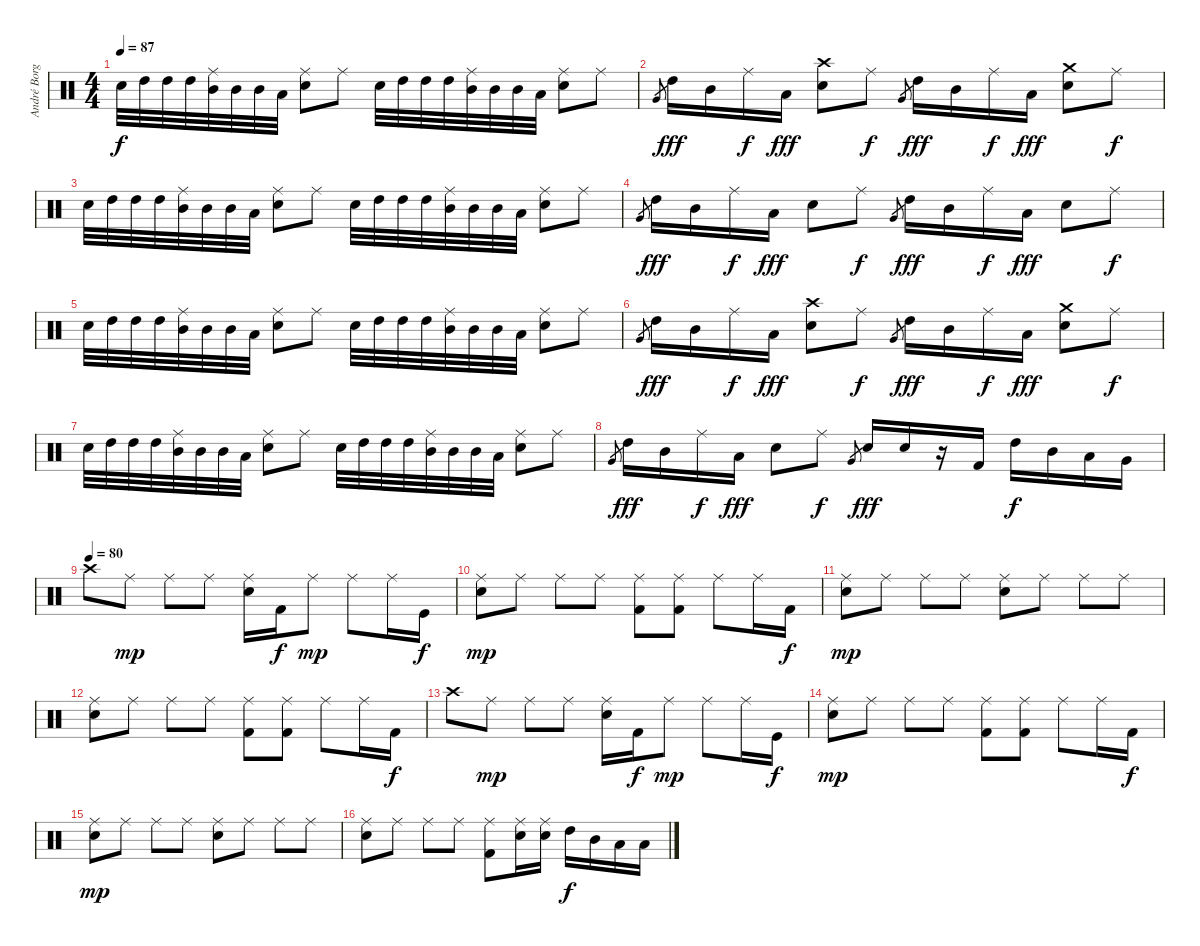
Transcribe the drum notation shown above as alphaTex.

\track ("André Borgman" "André Borg") {instrument percussion}
\staff {score}
\articulation defaults
\ts (4 4)
\tempo 87
\clef neutral
\ks c "Electric Snare (hit)".32{dy f} "High Tom (hit)".32 "High Tom (hit)".32 "High Tom (hit)".32
("Ride (middle)" "Mid Tom (hit)").32 "Mid Tom (hit)".32 "Mid Tom (hit)".32 "Low Tom (hit)".32 ("Ride (middle)" "Electric Snare (hit)").8 "Ride (middle)".8 "Electric Snare (hit)".32 "High Tom (hit)".32 "High Tom (hit)".32 "High Tom (hit)".32 ("Ride (middle)" "Mid Tom (hit)").32 "Mid Tom (hit)".32 "Mid Tom (hit)".32 "Low Tom (hit)".32 ("Ride (middle)" "Electric Snare (hit)").8 "Ride (middle)".8 |
"Very Low Tom (hit)".8{gr} "High Tom (hit)".16{dy fff} "Mid Tom (hit)".16 "Ride (middle)".16{dy f} "Low Tom (hit)".16{dy fff} ("Crash high (hit)" "Electric Snare (hit)").8 "Ride (middle)".8{dy f} "Very Low Tom (hit)".8{gr} "High Tom (hit)".16{dy fff} "Mid Tom (hit)".16 "Ride (middle)".16{dy f} "Low Tom (hit)".16{dy fff} ("Crash medium (hit)" "Electric Snare (hit)").8 "Ride (middle)".8{dy f} |
"Electric Snare (hit)".32 "High Tom (hit)".32 "High Tom (hit)".32 "High Tom (hit)".32 ("Ride (middle)" "Mid Tom (hit)").32 "Mid Tom (hit)".32 "Mid Tom (hit)".32 "Low Tom (hit)".32 ("Ride (middle)" "Electric Snare (hit)").8 "Ride (middle)".8 "Electric Snare (hit)".32 "High Tom (hit)".32 "High Tom (hit)".32 "High Tom (hit)".32 ("Ride (middle)" "Mid Tom (hit)").32 "Mid Tom (hit)".32 "Mid Tom (hit)".32 "Low Tom (hit)".32 ("Ride (middle)" "Electric Snare (hit)").8 "Ride (middle)".8 |
"Very Low Tom (hit)".8{gr} "High Tom (hit)".16{dy fff} "Mid Tom (hit)".16 "Ride (middle)".16{dy f} "Low Tom (hit)".16{dy fff} "Electric Snare (hit)".8 "Ride (middle)".8{dy f} "Very Low Tom (hit)".8{gr} "High Tom (hit)".16{dy fff} "Mid Tom (hit)".16 "Ride (middle)".16{dy f} "Low Tom (hit)".16{dy fff} "Electric Snare (hit)".8 "Ride (middle)".8{dy f} |
"Electric Snare (hit)".32 "High Tom (hit)".32 "High Tom (hit)".32 "High Tom (hit)".32 ("Ride (middle)" "Mid Tom (hit)").32 "Mid Tom (hit)".32 "Mid Tom (hit)".32 "Low Tom (hit)".32 ("Ride (middle)" "Electric Snare (hit)").8 "Ride (middle)".8 "Electric Snare (hit)".32 "High Tom (hit)".32 "High Tom (hit)".32 "High Tom (hit)".32 ("Ride (middle)" "Mid Tom (hit)").32 "Mid Tom (hit)".32 "Mid Tom (hit)".32 "Low Tom (hit)".32 ("Ride (middle)" "Electric Snare (hit)").8 "Ride (middle)".8 |
"Very Low Tom (hit)".8{gr} "High Tom (hit)".16{dy fff} "Mid Tom (hit)".16 "Ride (middle)".16{dy f} "Low Tom (hit)".16{dy fff} ("Crash high (hit)" "Electric Snare (hit)").8 "Ride (middle)".8{dy f} "Very Low Tom (hit)".8{gr} "High Tom (hit)".16{dy fff} "Mid Tom (hit)".16 "Ride (middle)".16{dy f} "Low Tom (hit)".16{dy fff} ("Crash medium (hit)" "Electric Snare (hit)").8 "Ride (middle)".8{dy f} |
"Electric Snare (hit)".32 "High Tom (hit)".32 "High Tom (hit)".32 "High Tom (hit)".32 ("Ride (middle)" "Mid Tom (hit)").32 "Mid Tom (hit)".32 "Mid Tom (hit)".32 "Low Tom (hit)".32 ("Ride (middle)" "Electric Snare (hit)").8 "Ride (middle)".8 "Electric Snare (hit)".32 "High Tom (hit)".32 "High Tom (hit)".32 "High Tom (hit)".32 ("Ride (middle)" "Mid Tom (hit)").32 "Mid Tom (hit)".32 "Mid Tom (hit)".32 "Low Tom (hit)".32 ("Ride (middle)" "Electric Snare (hit)").8 "Ride (middle)".8 |
"Very Low Tom (hit)".8{gr} "High Tom (hit)".16{dy fff} "Mid Tom (hit)".16 "Ride (middle)".16{dy f} "Low Tom (hit)".16{dy fff} "Electric Snare (hit)".8 "Ride (middle)".8{dy f} "Very Low Tom (hit)".8{gr} "Electric Snare (hit)".16{dy fff} "Electric Snare (hit)".16 r.16 "Kick (hit) 2".16 "High Tom (hit)".16{dy f} "Mid Tom (hit)".16 "Low Tom (hit)".16 "Very Low Tom (hit)".16 |
\tempo (80)
"Crash high (hit)".8 "Ride (middle)".8{dy mp} "Ride (middle)".8 "Ride (middle)".8 ("Electric Snare (hit)" "Ride (middle)").16 "Kick (hit) 2".16{dy f} "Ride (middle)".8{dy mp} "Ride (middle)".8 "Ride (middle)".16 "Kick (hit)".16{dy f} |
("Electric Snare (hit)" "Ride (middle)").8{dy mp} "Ride (middle)".8 "Ride (middle)".8 "Ride (middle)".8 ("Kick (hit) 2" "Ride (middle)").8 ("Kick (hit) 2" "Ride (middle)").8 "Ride (middle)".8 "Ride (middle)".16 "Kick (hit) 2".16{dy f} |
("Electric Snare (hit)" "Ride (middle)").8{dy mp} "Ride (middle)".8 "Ride (middle)".8 "Ride (middle)".8 ("Electric Snare (hit)" "Ride (middle)").8 "Ride (middle)".8 "Ride (middle)".8 "Ride (middle)".8 |
("Electric Snare (hit)" "Ride (middle)").8 "Ride (middle)".8 "Ride (middle)".8 "Ride (middle)".8 ("Kick (hit) 2" "Ride (middle)").8 ("Kick (hit) 2" "Ride (middle)").8 "Ride (middle)".8 "Ride (middle)".16 "Kick (hit) 2".16{dy f} |
"Crash high (hit)".8 "Ride (middle)".8{dy mp} "Ride (middle)".8 "Ride (middle)".8 ("Electric Snare (hit)" "Ride (middle)").16 "Kick (hit) 2".16{dy f} "Ride (middle)".8{dy mp} "Ride (middle)".8 "Ride (middle)".16 "Kick (hit)".16{dy f} |
("Electric Snare (hit)" "Ride (middle)").8{dy mp} "Ride (middle)".8 "Ride (middle)".8 "Ride (middle)".8 ("Kick (hit) 2" "Ride (middle)").8 ("Kick (hit) 2" "Ride (middle)").8 "Ride (middle)".8 "Ride (middle)".16 "Kick (hit) 2".16{dy f} |
("Electric Snare (hit)" "Ride (middle)").8{dy mp} "Ride (middle)".8 "Ride (middle)".8 "Ride (middle)".8 ("Electric Snare (hit)" "Ride (middle)").8 "Ride (middle)".8 "Ride (middle)".8 "Ride (middle)".8 |
("Electric Snare (hit)" "Ride (middle)").8 "Ride (middle)".8 "Ride (middle)".8 "Ride (middle)".8 ("Kick (hit) 2" "Ride (middle)").8 ("Electric Snare (hit)" "Ride (middle)").16 ("Electric Snare (hit)" "Ride (middle)").16 "High Tom (hit)".16{dy f} "Mid Tom (hit)".16 "Low Tom (hit)".16 "Low Floor Tom (hit)".16
